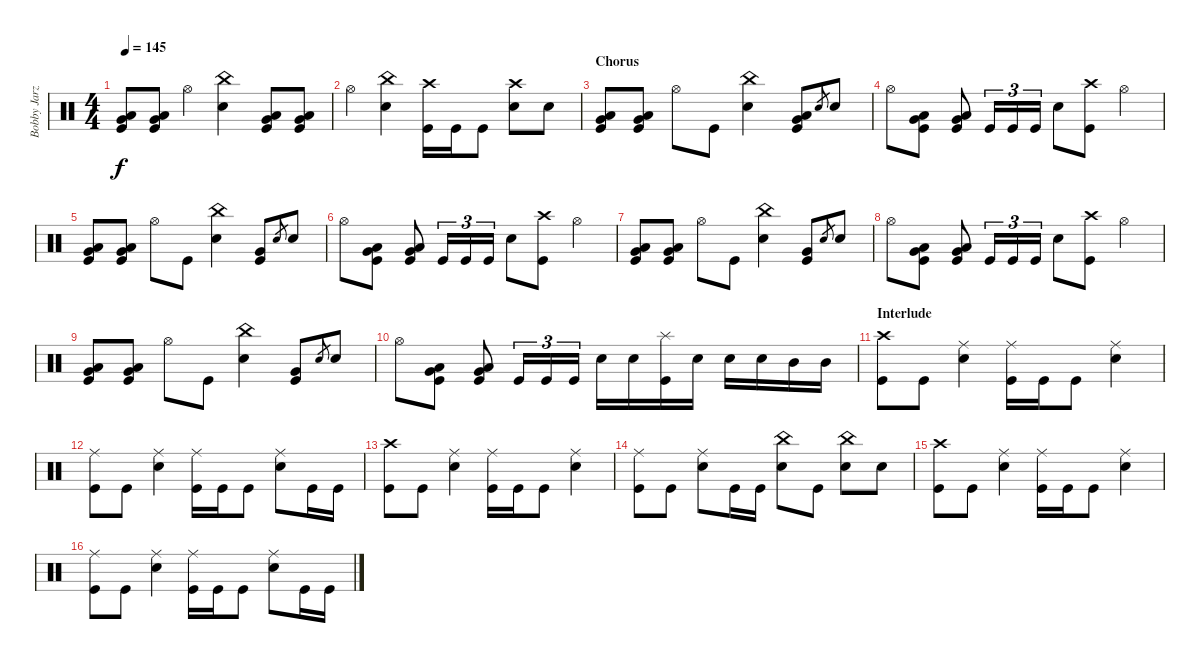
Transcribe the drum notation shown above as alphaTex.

\track ("Bobby Jarzombek" "Bobby Jarz") {instrument percussion}
\staff {score}
\articulation defaults
\ts (4 4)
\tempo 145
\clef neutral
\ks c
("Low Tom (hit)" "Very Low Tom (hit)" "Kick (hit)").8{dy f} ("Low Tom (hit)" "Very Low Tom (hit)" "Kick (hit)").8 "Hi-Hat (open)".4 ("China (hit)" "Electric Snare (hit)").4 ("Low Tom (hit)" "Very Low Tom (hit)" "Kick (hit)").8 ("Low Tom (hit)" "Very Low Tom (hit)" "Kick (hit)").8 |
"Hi-Hat (open)".4 ("China (hit)" "Electric Snare (hit)").4 ("Crash high (hit)" "Kick (hit)").16 "Kick (hit)".16 "Kick (hit)".8 ("Crash high (hit)" "Electric Snare (hit)").8 "Electric Snare (hit)".8 |
\section ("" "Chorus")
("Low Tom (hit)" "Very Low Tom (hit)" "Kick (hit)").8 ("Low Tom (hit)" "Very Low Tom (hit)" "Kick (hit)").8 "Hi-Hat (open)".8 "Kick (hit)".8 ("China (hit)" "Electric Snare (hit)").4 ("Low Tom (hit)" "Very Low Tom (hit)" "Kick (hit)").8 "Electric Snare (hit)".8{gr} "Electric Snare (hit)".8 |
"Hi-Hat (open)".8 ("Low Tom (hit)" "Very Low Tom (hit)" "Kick (hit)").8 ("Low Tom (hit)" "Very Low Tom (hit)" "Kick (hit)").8 "Kick (hit)".16{tu (3 2)} "Kick (hit)".16{tu (3 2)} "Kick (hit)".16{tu (3 2)} "Electric Snare (hit)".8 ("Crash high (hit)" "Kick (hit)").8 "Hi-Hat (open)".4 |
("Low Tom (hit)" "Very Low Tom (hit)" "Kick (hit)").8 ("Low Tom (hit)" "Very Low Tom (hit)" "Kick (hit)").8 "Hi-Hat (open)".8 "Kick (hit)".8 ("China (hit)" "Electric Snare (hit)").4 ("Very Low Tom (hit)" "Kick (hit)").8 "Electric Snare (hit)".8{gr} "Electric Snare (hit)".8 |
"Hi-Hat (open)".8 ("Low Tom (hit)" "Very Low Tom (hit)" "Kick (hit)").8 ("Low Tom (hit)" "Very Low Tom (hit)" "Kick (hit)").8 "Kick (hit)".16{tu (3 2)} "Kick (hit)".16{tu (3 2)} "Kick (hit)".16{tu (3 2)} "Electric Snare (hit)".8 ("Crash high (hit)" "Kick (hit)").8 "Hi-Hat (open)".4 |
("Low Tom (hit)" "Very Low Tom (hit)" "Kick (hit)").8 ("Low Tom (hit)" "Very Low Tom (hit)" "Kick (hit)").8 "Hi-Hat (open)".8 "Kick (hit)".8 ("China (hit)" "Electric Snare (hit)").4 ("Very Low Tom (hit)" "Kick (hit)").8 "Electric Snare (hit)".8{gr} "Electric Snare (hit)".8 |
"Hi-Hat (open)".8 ("Low Tom (hit)" "Very Low Tom (hit)" "Kick (hit)").8 ("Low Tom (hit)" "Very Low Tom (hit)" "Kick (hit)").8 "Kick (hit)".16{tu (3 2)} "Kick (hit)".16{tu (3 2)} "Kick (hit)".16{tu (3 2)} "Electric Snare (hit)".8 ("Crash high (hit)" "Kick (hit)").8 "Hi-Hat (open)".4 |
("Low Tom (hit)" "Very Low Tom (hit)" "Kick (hit)").8 ("Low Tom (hit)" "Very Low Tom (hit)" "Kick (hit)").8 "Hi-Hat (open)".8 "Kick (hit)".8 ("China (hit)" "Electric Snare (hit)").4 ("Very Low Tom (hit)" "Kick (hit)").8 "Electric Snare (hit)".8{gr} "Electric Snare (hit)".8 |
"Hi-Hat (open)".8 ("Low Tom (hit)" "Very Low Tom (hit)" "Kick (hit)").8 ("Low Tom (hit)" "Very Low Tom (hit)" "Kick (hit)").8 "Kick (hit)".16{tu (3 2)} "Kick (hit)".16{tu (3 2)} "Kick (hit)".16{tu (3 2)} "Electric Snare (hit)".16 "Electric Snare (hit)".16 ("Splash (hit)" "Kick (hit)").16 "Electric Snare (hit)".16 "Electric Snare (hit)".16 "Electric Snare (hit)".16 "Mid Tom (hit)".16 "Mid Tom (hit)".16 |
\section ("" "Interlude")
("Crash high (hit)" "Kick (hit)").8 "Kick (hit)".8 ("Ride (middle)" "Electric Snare (hit)").4 ("Ride (middle)" "Kick (hit)").16 "Kick (hit)".16 "Kick (hit)".8 ("Ride (middle)" "Electric Snare (hit)").4 |
("Ride (middle)" "Kick (hit)").8 "Kick (hit)".8 ("Ride (middle)" "Electric Snare (hit)").4 ("Ride (middle)" "Kick (hit)").16 "Kick (hit)".16 "Kick (hit)".8 ("Ride (middle)" "Electric Snare (hit)").8 "Kick (hit)".16 "Kick (hit)".16 |
("Crash high (hit)" "Kick (hit)").8 "Kick (hit)".8 ("Ride (middle)" "Electric Snare (hit)").4 ("Ride (middle)" "Kick (hit)").16 "Kick (hit)".16 "Kick (hit)".8 ("Ride (middle)" "Electric Snare (hit)").4 |
("Ride (middle)" "Kick (hit)").8 "Kick (hit)".8 ("Ride (middle)" "Electric Snare (hit)").8 "Kick (hit)".16 "Kick (hit)".16 ("China (hit)" "Electric Snare (hit)").8 "Kick (hit)".8 ("China (hit)" "Electric Snare (hit)").8 "Electric Snare (hit)".8 |
("Crash high (hit)" "Kick (hit)").8 "Kick (hit)".8 ("Ride (middle)" "Electric Snare (hit)").4 ("Ride (middle)" "Kick (hit)").16 "Kick (hit)".16 "Kick (hit)".8 ("Ride (middle)" "Electric Snare (hit)").4 |
("Ride (middle)" "Kick (hit)").8 "Kick (hit)".8 ("Ride (middle)" "Electric Snare (hit)").4 ("Ride (middle)" "Kick (hit)").16 "Kick (hit)".16 "Kick (hit)".8 ("Ride (middle)" "Electric Snare (hit)").8 "Kick (hit)".16 "Kick (hit)".16
